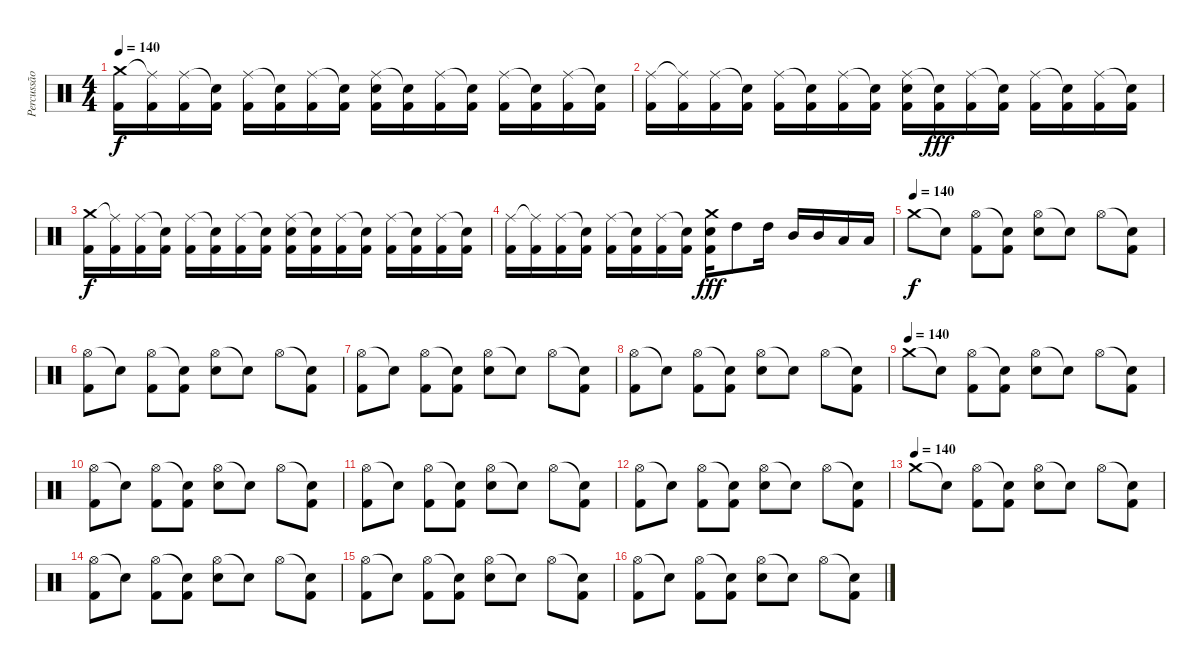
\track ("Percussão" "Percussão") {instrument percussion}
\staff {score}
\articulation defaults
\ts (4 4)
\tempo 140
\clef neutral
\ks c
("Crash medium (hit)" "Kick (hit) 2").16{dy f} ("Ride (middle)"{t} "Kick (hit) 2").16 ("Ride (middle)" "Kick (hit) 2").16 ("Snare (hit)"{t} "Kick (hit) 2").16 ("Ride (middle)" "Kick (hit) 2").16 ("Snare (hit)"{t} "Kick (hit) 2").16 ("Ride (middle)" "Kick (hit) 2").16 ("Snare (hit)"{t} "Kick (hit) 2").16 ("Ride (middle)" "Electric Snare (hit)" "Kick (hit) 2").16 ("Snare (hit)"{t} "Kick (hit) 2").16 ("Ride (middle)" "Kick (hit) 2").16 ("Snare (hit)"{t} "Kick (hit) 2").16 ("Ride (middle)" "Kick (hit) 2").16 ("Snare (hit)"{t} "Kick (hit) 2").16 ("Ride (middle)" "Kick (hit) 2").16 ("Snare (hit)"{t} "Kick (hit) 2").16 |
("Ride (middle)" "Kick (hit) 2").16 ("Ride (middle)"{t} "Kick (hit) 2").16 ("Ride (middle)" "Kick (hit) 2").16 ("Snare (hit)"{t} "Kick (hit) 2").16 ("Ride (middle)" "Kick (hit) 2").16 ("Snare (hit)"{t} "Kick (hit) 2").16 ("Ride (middle)" "Kick (hit) 2").16 ("Snare (hit)"{t} "Kick (hit) 2").16 ("Ride (middle)" "Electric Snare (hit)" "Kick (hit) 2").16 ("Snare (hit)"{t} "Kick (hit) 2").16{dy fff} ("Ride (middle)" "Kick (hit) 2").16 ("Snare (hit)"{t} "Kick (hit) 2").16 ("Ride (middle)" "Kick (hit) 2").16 ("Snare (hit)"{t} "Kick (hit) 2").16 ("Ride (middle)" "Kick (hit) 2").16 ("Snare (hit)"{t} "Kick (hit) 2").16 |
("Crash medium (hit)" "Kick (hit) 2").16{dy f} ("Ride (middle)"{t} "Kick (hit) 2").16 ("Ride (middle)" "Kick (hit) 2").16 ("Snare (hit)"{t} "Kick (hit) 2").16 ("Ride (middle)" "Kick (hit) 2").16 ("Snare (hit)"{t} "Kick (hit) 2").16 ("Ride (middle)" "Kick (hit) 2").16 ("Snare (hit)"{t} "Kick (hit) 2").16 ("Ride (middle)" "Electric Snare (hit)" "Kick (hit) 2").16 ("Snare (hit)"{t} "Kick (hit) 2").16 ("Ride (middle)" "Kick (hit) 2").16 ("Snare (hit)"{t} "Kick (hit) 2").16 ("Ride (middle)" "Kick (hit) 2").16 ("Snare (hit)"{t} "Kick (hit) 2").16 ("Ride (middle)" "Kick (hit) 2").16 ("Snare (hit)"{t} "Kick (hit) 2").16 |
("Ride (middle)" "Kick (hit) 2").16 ("Ride (middle)"{t} "Kick (hit) 2").16 ("Ride (middle)" "Kick (hit) 2").16 ("Snare (hit)"{t} "Kick (hit) 2").16 ("Ride (middle)" "Kick (hit) 2").16 ("Snare (hit)"{t} "Kick (hit) 2").16 ("Ride (middle)" "Kick (hit) 2").16 ("Snare (hit)"{t} "Kick (hit) 2").16 ("Crash medium (hit)" "Electric Snare (hit)" "Kick (hit) 2").16{dy fff} "High Tom (hit)".8 "High Tom (hit)".16 "Mid Tom (hit)".16 "Mid Tom (hit)".16 "Low Tom (hit)".16 "Low Tom (hit)".16 |
\tempo (140)
"Crash medium (hit)".8{dy f} "Snare (hit)"{t}.8 ("Hi-Hat (open)" "Kick (hit) 2").8 ("Snare (hit)"{t} "Kick (hit) 2").8 ("Hi-Hat (open)" "Electric Snare (hit)").8 "Snare (hit)"{t}.8 "Hi-Hat (open)".8 ("Snare (hit)"{t} "Kick (hit) 2").8 |
("Hi-Hat (open)" "Kick (hit) 2").8 "Snare (hit)"{t}.8 ("Hi-Hat (open)" "Kick (hit) 2").8 ("Snare (hit)"{t} "Kick (hit) 2").8 ("Hi-Hat (open)" "Electric Snare (hit)").8 "Snare (hit)"{t}.8 "Hi-Hat (open)".8 ("Snare (hit)"{t} "Kick (hit) 2").8 |
("Hi-Hat (open)" "Kick (hit) 2").8 "Snare (hit)"{t}.8 ("Hi-Hat (open)" "Kick (hit) 2").8 ("Snare (hit)"{t} "Kick (hit) 2").8 ("Hi-Hat (open)" "Electric Snare (hit)").8 "Snare (hit)"{t}.8 "Hi-Hat (open)".8 ("Snare (hit)"{t} "Kick (hit) 2").8 |
("Hi-Hat (open)" "Kick (hit) 2").8 "Snare (hit)"{t}.8 ("Hi-Hat (open)" "Kick (hit) 2").8 ("Snare (hit)"{t} "Kick (hit) 2").8 ("Hi-Hat (open)" "Electric Snare (hit)").8 "Snare (hit)"{t}.8 "Hi-Hat (open)".8 ("Snare (hit)"{t} "Kick (hit) 2").8 |
\tempo (140)
"Crash medium (hit)".8 "Snare (hit)"{t}.8 ("Hi-Hat (open)" "Kick (hit) 2").8 ("Snare (hit)"{t} "Kick (hit) 2").8 ("Hi-Hat (open)" "Electric Snare (hit)").8 "Snare (hit)"{t}.8 "Hi-Hat (open)".8 ("Snare (hit)"{t} "Kick (hit) 2").8 |
("Hi-Hat (open)" "Kick (hit) 2").8 "Snare (hit)"{t}.8 ("Hi-Hat (open)" "Kick (hit) 2").8 ("Snare (hit)"{t} "Kick (hit) 2").8 ("Hi-Hat (open)" "Electric Snare (hit)").8 "Snare (hit)"{t}.8 "Hi-Hat (open)".8 ("Snare (hit)"{t} "Kick (hit) 2").8 |
("Hi-Hat (open)" "Kick (hit) 2").8 "Snare (hit)"{t}.8 ("Hi-Hat (open)" "Kick (hit) 2").8 ("Snare (hit)"{t} "Kick (hit) 2").8 ("Hi-Hat (open)" "Electric Snare (hit)").8 "Snare (hit)"{t}.8 "Hi-Hat (open)".8 ("Snare (hit)"{t} "Kick (hit) 2").8 |
("Hi-Hat (open)" "Kick (hit) 2").8 "Snare (hit)"{t}.8 ("Hi-Hat (open)" "Kick (hit) 2").8 ("Snare (hit)"{t} "Kick (hit) 2").8 ("Hi-Hat (open)" "Electric Snare (hit)").8 "Snare (hit)"{t}.8 "Hi-Hat (open)".8 ("Snare (hit)"{t} "Kick (hit) 2").8 |
\tempo (140)
"Crash medium (hit)".8 "Snare (hit)"{t}.8 ("Hi-Hat (open)" "Kick (hit) 2").8 ("Snare (hit)"{t} "Kick (hit) 2").8 ("Hi-Hat (open)" "Electric Snare (hit)").8 "Snare (hit)"{t}.8 "Hi-Hat (open)".8 ("Snare (hit)"{t} "Kick (hit) 2").8 |
("Hi-Hat (open)" "Kick (hit) 2").8 "Snare (hit)"{t}.8 ("Hi-Hat (open)" "Kick (hit) 2").8 ("Snare (hit)"{t} "Kick (hit) 2").8 ("Hi-Hat (open)" "Electric Snare (hit)").8 "Snare (hit)"{t}.8 "Hi-Hat (open)".8 ("Snare (hit)"{t} "Kick (hit) 2").8 |
("Hi-Hat (open)" "Kick (hit) 2").8 "Snare (hit)"{t}.8 ("Hi-Hat (open)" "Kick (hit) 2").8 ("Snare (hit)"{t} "Kick (hit) 2").8 ("Hi-Hat (open)" "Electric Snare (hit)").8 "Snare (hit)"{t}.8 "Hi-Hat (open)".8 ("Snare (hit)"{t} "Kick (hit) 2").8 |
("Hi-Hat (open)" "Kick (hit) 2").8 "Snare (hit)"{t}.8 ("Hi-Hat (open)" "Kick (hit) 2").8 ("Snare (hit)"{t} "Kick (hit) 2").8 ("Hi-Hat (open)" "Electric Snare (hit)").8 "Snare (hit)"{t}.8 "Hi-Hat (open)".8 ("Snare (hit)"{t} "Kick (hit) 2").8
